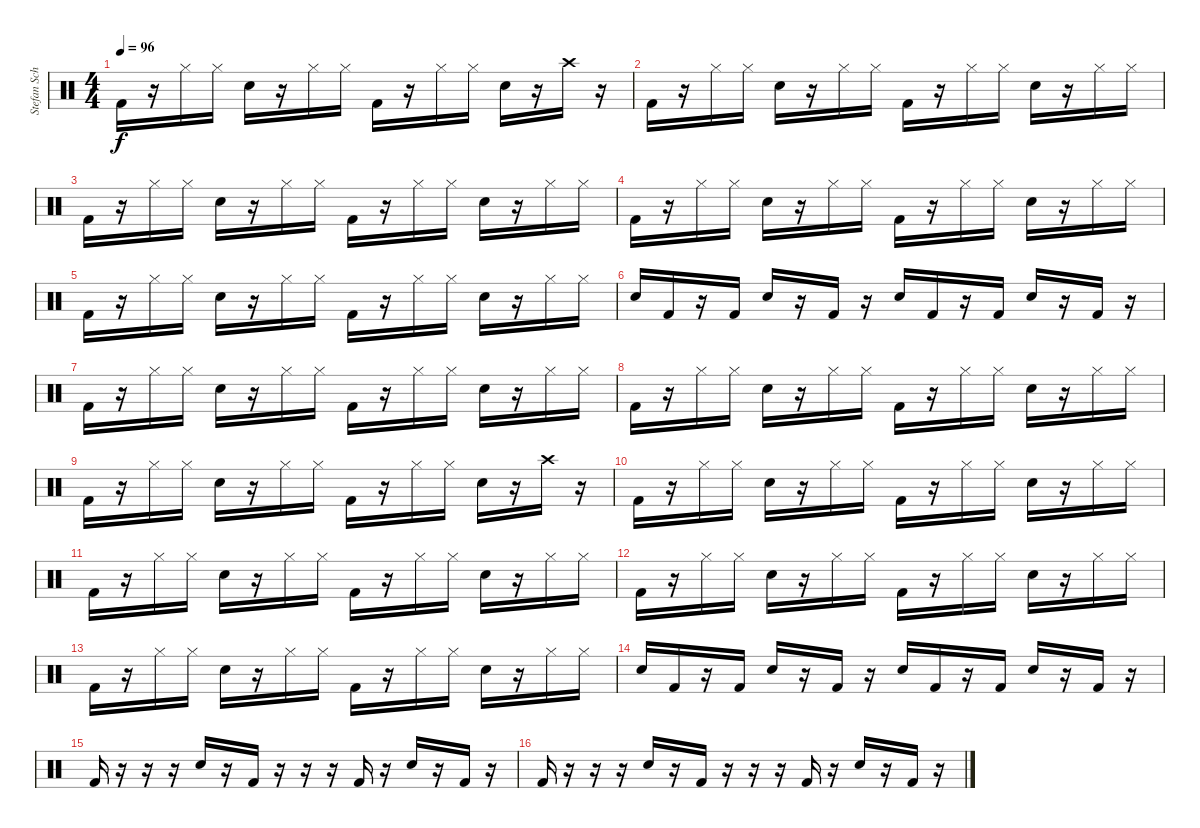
\track ("Stefan Schwarzmann" "Stefan Sch") {instrument percussion}
\staff {score}
\articulation defaults
\ts (4 4)
\tempo 96
\clef neutral
\ks c "Kick (hit) 2".16{dy f}
r.16 "Hi-Hat (closed)".16 "Hi-Hat (closed)".16 "Snare (hit) 2".16 r.16 "Hi-Hat (closed)".16 "Hi-Hat (closed)".16 "Kick (hit) 2".16 r.16 "Hi-Hat (closed)".16 "Hi-Hat (closed)".16 "Snare (hit) 2".16 r.16 "Crash high (hit)".16 r.16 |
"Kick (hit) 2".16 r.16 "Hi-Hat (closed)".16 "Hi-Hat (closed)".16 "Snare (hit) 2".16 r.16 "Hi-Hat (closed)".16 "Hi-Hat (closed)".16 "Kick (hit) 2".16 r.16 "Hi-Hat (closed)".16 "Hi-Hat (closed)".16 "Snare (hit) 2".16 r.16 "Hi-Hat (closed)".16 "Hi-Hat (closed)".16 |
"Kick (hit) 2".16 r.16 "Hi-Hat (closed)".16 "Hi-Hat (closed)".16 "Snare (hit) 2".16 r.16 "Hi-Hat (closed)".16 "Hi-Hat (closed)".16 "Kick (hit) 2".16 r.16 "Hi-Hat (closed)".16 "Hi-Hat (closed)".16 "Snare (hit) 2".16 r.16 "Hi-Hat (closed)".16 "Hi-Hat (closed)".16 |
"Kick (hit) 2".16 r.16 "Hi-Hat (closed)".16 "Hi-Hat (closed)".16 "Snare (hit) 2".16 r.16 "Hi-Hat (closed)".16 "Hi-Hat (closed)".16 "Kick (hit) 2".16 r.16 "Hi-Hat (closed)".16 "Hi-Hat (closed)".16 "Snare (hit) 2".16 r.16 "Hi-Hat (closed)".16 "Hi-Hat (closed)".16 |
"Kick (hit) 2".16 r.16 "Hi-Hat (closed)".16 "Hi-Hat (closed)".16 "Snare (hit) 2".16 r.16 "Hi-Hat (closed)".16 "Hi-Hat (closed)".16 "Kick (hit) 2".16 r.16 "Hi-Hat (closed)".16 "Hi-Hat (closed)".16 "Snare (hit) 2".16 r.16 "Hi-Hat (closed)".16 "Hi-Hat (closed)".16 |
"Snare (hit) 2".16 "Kick (hit) 2".16 r.16 "Kick (hit) 2".16 "Snare (hit) 2".16 r.16 "Kick (hit) 2".16 r.16 "Snare (hit) 2".16 "Kick (hit) 2".16 r.16 "Kick (hit) 2".16 "Snare (hit) 2".16 r.16 "Kick (hit) 2".16 r.16 |
"Kick (hit) 2".16 r.16 "Hi-Hat (closed)".16 "Hi-Hat (closed)".16 "Snare (hit) 2".16 r.16 "Hi-Hat (closed)".16 "Hi-Hat (closed)".16 "Kick (hit) 2".16 r.16 "Hi-Hat (closed)".16 "Hi-Hat (closed)".16 "Snare (hit) 2".16 r.16 "Hi-Hat (closed)".16 "Hi-Hat (closed)".16 |
"Kick (hit) 2".16 r.16 "Hi-Hat (closed)".16 "Hi-Hat (closed)".16 "Snare (hit) 2".16 r.16 "Hi-Hat (closed)".16 "Hi-Hat (closed)".16 "Kick (hit) 2".16 r.16 "Hi-Hat (closed)".16 "Hi-Hat (closed)".16 "Snare (hit) 2".16 r.16 "Hi-Hat (closed)".16 "Hi-Hat (closed)".16 |
"Kick (hit) 2".16 r.16 "Hi-Hat (closed)".16 "Hi-Hat (closed)".16 "Snare (hit) 2".16 r.16 "Hi-Hat (closed)".16 "Hi-Hat (closed)".16 "Kick (hit) 2".16 r.16 "Hi-Hat (closed)".16 "Hi-Hat (closed)".16 "Snare (hit) 2".16 r.16 "Crash high (hit)".16 r.16 |
"Kick (hit) 2".16 r.16 "Hi-Hat (closed)".16 "Hi-Hat (closed)".16 "Snare (hit) 2".16 r.16 "Hi-Hat (closed)".16 "Hi-Hat (closed)".16 "Kick (hit) 2".16 r.16 "Hi-Hat (closed)".16 "Hi-Hat (closed)".16 "Snare (hit) 2".16 r.16 "Hi-Hat (closed)".16 "Hi-Hat (closed)".16 |
"Kick (hit) 2".16 r.16 "Hi-Hat (closed)".16 "Hi-Hat (closed)".16 "Snare (hit) 2".16 r.16 "Hi-Hat (closed)".16 "Hi-Hat (closed)".16 "Kick (hit) 2".16 r.16 "Hi-Hat (closed)".16 "Hi-Hat (closed)".16 "Snare (hit) 2".16 r.16 "Hi-Hat (closed)".16 "Hi-Hat (closed)".16 |
"Kick (hit) 2".16 r.16 "Hi-Hat (closed)".16 "Hi-Hat (closed)".16 "Snare (hit) 2".16 r.16 "Hi-Hat (closed)".16 "Hi-Hat (closed)".16 "Kick (hit) 2".16 r.16 "Hi-Hat (closed)".16 "Hi-Hat (closed)".16 "Snare (hit) 2".16 r.16 "Hi-Hat (closed)".16 "Hi-Hat (closed)".16 |
"Kick (hit) 2".16 r.16 "Hi-Hat (closed)".16 "Hi-Hat (closed)".16 "Snare (hit) 2".16 r.16 "Hi-Hat (closed)".16 "Hi-Hat (closed)".16 "Kick (hit) 2".16 r.16 "Hi-Hat (closed)".16 "Hi-Hat (closed)".16 "Snare (hit) 2".16 r.16 "Hi-Hat (closed)".16 "Hi-Hat (closed)".16 |
"Snare (hit) 2".16 "Kick (hit) 2".16 r.16 "Kick (hit) 2".16 "Snare (hit) 2".16 r.16 "Kick (hit) 2".16 r.16 "Snare (hit) 2".16 "Kick (hit) 2".16 r.16 "Kick (hit) 2".16 "Snare (hit) 2".16 r.16 "Kick (hit) 2".16 r.16 |
"Kick (hit) 2".16 r.16 r.16 r.16 "Snare (hit) 2".16 r.16 "Kick (hit) 2".16 r.16 r.16 r.16 "Kick (hit) 2".16 r.16 "Snare (hit) 2".16 r.16 "Kick (hit) 2".16 r.16 |
"Kick (hit) 2".16 r.16 r.16 r.16 "Snare (hit) 2".16 r.16 "Kick (hit) 2".16 r.16 r.16 r.16 "Kick (hit) 2".16 r.16 "Snare (hit) 2".16 r.16 "Kick (hit) 2".16 r.16
